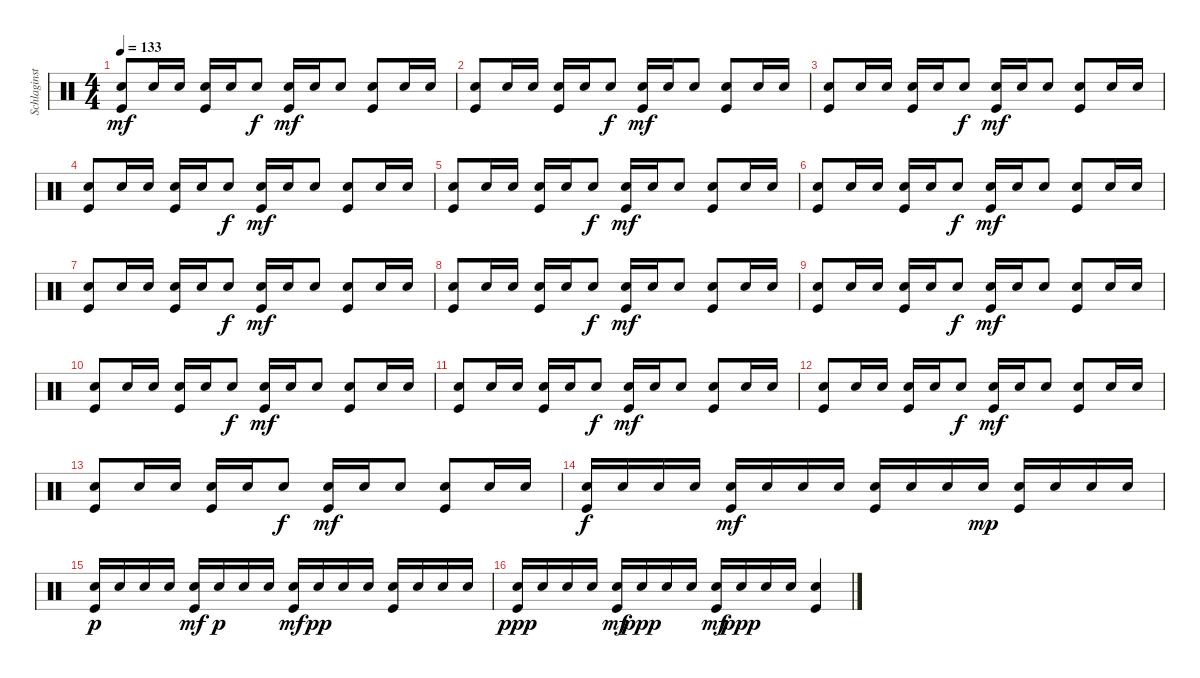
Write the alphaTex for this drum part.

\track ("Schlaginstrumente - Auswahl" "Schlaginst") {instrument percussion}
\staff {score}
\articulation defaults
\ts (4 4)
\tempo 133
\clef neutral
\ks c
("Snare (hit) 2" "Kick (hit)").8{dy mf} "Snare (hit) 2".16 "Snare (hit) 2".16 ("Snare (hit) 2" "Kick (hit)").16 "Snare (hit) 2".16 "Snare (hit) 2".8{dy f} ("Snare (hit) 2" "Kick (hit)").16{dy mf} "Snare (hit) 2".16 "Snare (hit) 2".8 ("Snare (hit) 2" "Kick (hit)").8 "Snare (hit) 2".16 "Snare (hit) 2".16 |
("Snare (hit) 2" "Kick (hit)").8 "Snare (hit) 2".16 "Snare (hit) 2".16 ("Snare (hit) 2" "Kick (hit)").16 "Snare (hit) 2".16 "Snare (hit) 2".8{dy f} ("Snare (hit) 2" "Kick (hit)").16{dy mf} "Snare (hit) 2".16 "Snare (hit) 2".8 ("Snare (hit) 2" "Kick (hit)").8 "Snare (hit) 2".16 "Snare (hit) 2".16 |
("Snare (hit) 2" "Kick (hit)").8 "Snare (hit) 2".16 "Snare (hit) 2".16 ("Snare (hit) 2" "Kick (hit)").16 "Snare (hit) 2".16 "Snare (hit) 2".8{dy f} ("Snare (hit) 2" "Kick (hit)").16{dy mf} "Snare (hit) 2".16 "Snare (hit) 2".8 ("Snare (hit) 2" "Kick (hit)").8 "Snare (hit) 2".16 "Snare (hit) 2".16 |
("Snare (hit) 2" "Kick (hit)").8 "Snare (hit) 2".16 "Snare (hit) 2".16 ("Snare (hit) 2" "Kick (hit)").16 "Snare (hit) 2".16 "Snare (hit) 2".8{dy f} ("Snare (hit) 2" "Kick (hit)").16{dy mf} "Snare (hit) 2".16 "Snare (hit) 2".8 ("Snare (hit) 2" "Kick (hit)").8 "Snare (hit) 2".16 "Snare (hit) 2".16 |
("Snare (hit) 2" "Kick (hit)").8 "Snare (hit) 2".16 "Snare (hit) 2".16 ("Snare (hit) 2" "Kick (hit)").16 "Snare (hit) 2".16 "Snare (hit) 2".8{dy f} ("Snare (hit) 2" "Kick (hit)").16{dy mf} "Snare (hit) 2".16 "Snare (hit) 2".8 ("Snare (hit) 2" "Kick (hit)").8 "Snare (hit) 2".16 "Snare (hit) 2".16 |
("Snare (hit) 2" "Kick (hit)").8 "Snare (hit) 2".16 "Snare (hit) 2".16 ("Snare (hit) 2" "Kick (hit)").16 "Snare (hit) 2".16 "Snare (hit) 2".8{dy f} ("Snare (hit) 2" "Kick (hit)").16{dy mf} "Snare (hit) 2".16 "Snare (hit) 2".8 ("Snare (hit) 2" "Kick (hit)").8 "Snare (hit) 2".16 "Snare (hit) 2".16 |
("Snare (hit) 2" "Kick (hit)").8 "Snare (hit) 2".16 "Snare (hit) 2".16 ("Snare (hit) 2" "Kick (hit)").16 "Snare (hit) 2".16 "Snare (hit) 2".8{dy f} ("Snare (hit) 2" "Kick (hit)").16{dy mf} "Snare (hit) 2".16 "Snare (hit) 2".8 ("Snare (hit) 2" "Kick (hit)").8 "Snare (hit) 2".16 "Snare (hit) 2".16 |
("Snare (hit) 2" "Kick (hit)").8 "Snare (hit) 2".16 "Snare (hit) 2".16 ("Snare (hit) 2" "Kick (hit)").16 "Snare (hit) 2".16 "Snare (hit) 2".8{dy f} ("Snare (hit) 2" "Kick (hit)").16{dy mf} "Snare (hit) 2".16 "Snare (hit) 2".8 ("Snare (hit) 2" "Kick (hit)").8 "Snare (hit) 2".16 "Snare (hit) 2".16 |
("Snare (hit) 2" "Kick (hit)").8 "Snare (hit) 2".16 "Snare (hit) 2".16 ("Snare (hit) 2" "Kick (hit)").16 "Snare (hit) 2".16 "Snare (hit) 2".8{dy f} ("Snare (hit) 2" "Kick (hit)").16{dy mf} "Snare (hit) 2".16 "Snare (hit) 2".8 ("Snare (hit) 2" "Kick (hit)").8 "Snare (hit) 2".16 "Snare (hit) 2".16 |
("Snare (hit) 2" "Kick (hit)").8 "Snare (hit) 2".16 "Snare (hit) 2".16 ("Snare (hit) 2" "Kick (hit)").16 "Snare (hit) 2".16 "Snare (hit) 2".8{dy f} ("Snare (hit) 2" "Kick (hit)").16{dy mf} "Snare (hit) 2".16 "Snare (hit) 2".8 ("Snare (hit) 2" "Kick (hit)").8 "Snare (hit) 2".16 "Snare (hit) 2".16 |
("Snare (hit) 2" "Kick (hit)").8 "Snare (hit) 2".16 "Snare (hit) 2".16 ("Snare (hit) 2" "Kick (hit)").16 "Snare (hit) 2".16 "Snare (hit) 2".8{dy f} ("Snare (hit) 2" "Kick (hit)").16{dy mf} "Snare (hit) 2".16 "Snare (hit) 2".8 ("Snare (hit) 2" "Kick (hit)").8 "Snare (hit) 2".16 "Snare (hit) 2".16 |
("Snare (hit) 2" "Kick (hit)").8 "Snare (hit) 2".16 "Snare (hit) 2".16 ("Snare (hit) 2" "Kick (hit)").16 "Snare (hit) 2".16 "Snare (hit) 2".8{dy f} ("Snare (hit) 2" "Kick (hit)").16{dy mf} "Snare (hit) 2".16 "Snare (hit) 2".8 ("Snare (hit) 2" "Kick (hit)").8 "Snare (hit) 2".16 "Snare (hit) 2".16 |
("Snare (hit) 2" "Kick (hit)").8 "Snare (hit) 2".16 "Snare (hit) 2".16 ("Snare (hit) 2" "Kick (hit)").16 "Snare (hit) 2".16 "Snare (hit) 2".8{dy f} ("Snare (hit) 2" "Kick (hit)").16{dy mf} "Snare (hit) 2".16 "Snare (hit) 2".8 ("Snare (hit) 2" "Kick (hit)").8 "Snare (hit) 2".16 "Snare (hit) 2".16 |
("Snare (hit) 2" "Kick (hit)").16{dy f} "Snare (hit) 2".16 "Snare (hit) 2".16 "Snare (hit) 2".16 ("Snare (hit) 2" "Kick (hit)").16{dy mf} "Snare (hit) 2".16 "Snare (hit) 2".16 "Snare (hit) 2".16 ("Snare (hit) 2" "Kick (hit)").16 "Snare (hit) 2".16 "Snare (hit) 2".16 "Snare (hit) 2".16{dy mp} ("Snare (hit) 2" "Kick (hit)").16 "Snare (hit) 2".16 "Snare (hit) 2".16 "Snare (hit) 2".16 |
("Snare (hit) 2" "Kick (hit)").16{dy p} "Snare (hit) 2".16 "Snare (hit) 2".16 "Snare (hit) 2".16 ("Snare (hit) 2" "Kick (hit)").16{dy mf} "Snare (hit) 2".16{dy p} "Snare (hit) 2".16 "Snare (hit) 2".16 ("Snare (hit) 2" "Kick (hit)").16{dy mf} "Snare (hit) 2".16{dy pp} "Snare (hit) 2".16 "Snare (hit) 2".16 ("Snare (hit) 2" "Kick (hit)").16 "Snare (hit) 2".16 "Snare (hit) 2".16 "Snare (hit) 2".16 |
("Snare (hit) 2" "Kick (hit)").16{dy ppp} "Snare (hit) 2".16 "Snare (hit) 2".16 "Snare (hit) 2".16 ("Snare (hit) 2" "Kick (hit)").16{dy mf} "Snare (hit) 2".16{dy ppp} "Snare (hit) 2".16 "Snare (hit) 2".16 ("Snare (hit) 2" "Kick (hit)").16{dy mf} "Snare (hit) 2".16{dy ppp} "Snare (hit) 2".16 "Snare (hit) 2".16 ("Snare (hit) 2" "Kick (hit)").4
